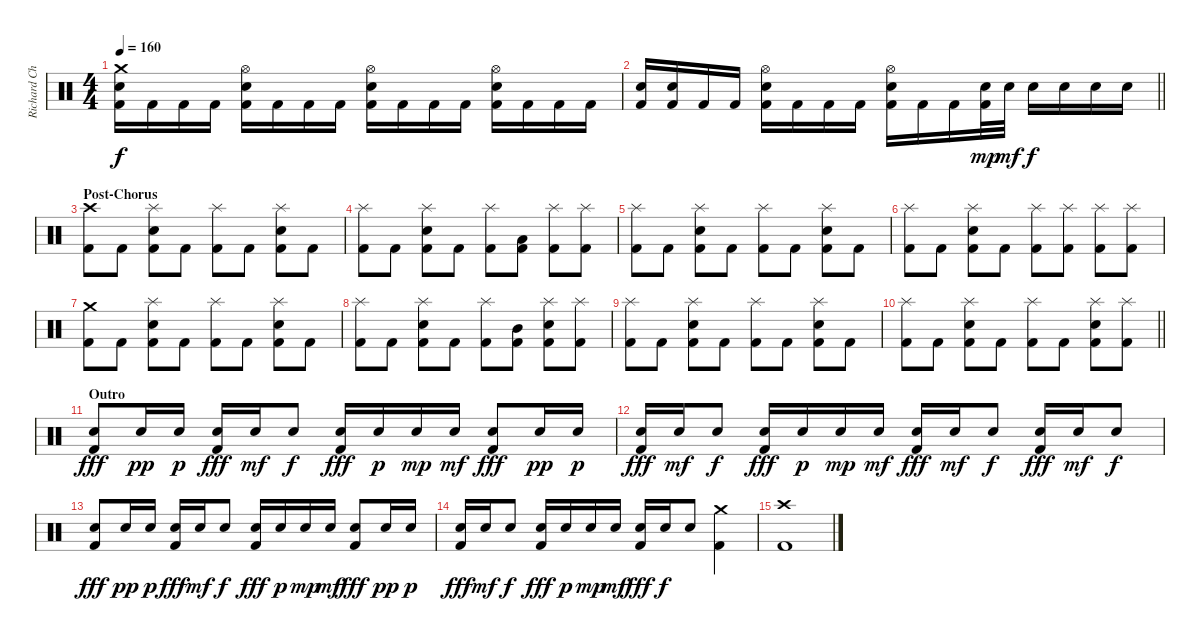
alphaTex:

\track ("Richard Christy" "Richard Ch") {instrument percussion}
\staff {score}
\articulation defaults
\ts (4 4)
\tempo 160
\clef neutral
\ks c
("Crash medium (hit)" "Snare (hit) 2" "Kick (hit) 2").16{dy f} "Kick (hit) 2".16 "Kick (hit) 2".16 "Kick (hit) 2".16 ("Hi-Hat (open)" "Snare (hit) 2" "Kick (hit) 2").16 "Kick (hit) 2".16 "Kick (hit) 2".16 "Kick (hit) 2".16 ("Hi-Hat (open)" "Snare (hit) 2" "Kick (hit) 2").16 "Kick (hit) 2".16 "Kick (hit) 2".16 "Kick (hit) 2".16 ("Hi-Hat (open)" "Snare (hit) 2" "Kick (hit) 2").16 "Kick (hit) 2".16 "Kick (hit) 2".16 "Kick (hit) 2".16 |
\barLineRight lightlight
("Snare (hit) 2" "Kick (hit) 2").16 ("Snare (hit) 2" "Kick (hit) 2").16 "Kick (hit) 2".16 "Kick (hit) 2".16 ("Hi-Hat (open)" "Snare (hit) 2" "Kick (hit) 2").16 "Kick (hit) 2".16 "Kick (hit) 2".16 "Kick (hit) 2".16 ("Hi-Hat (open)" "Snare (hit) 2" "Kick (hit) 2").16 "Kick (hit) 2".16 "Kick (hit) 2".16 ("Snare (hit) 2" "Kick (hit) 2").32{dy mp} "Snare (hit) 2".32{dy mf} "Snare (hit) 2".16{dy f} "Snare (hit) 2".16 "Snare (hit) 2".16 "Snare (hit) 2".16 |
\section ("" "Post-Chorus")
("Crash high (hit)" "Kick (hit) 2").8 "Kick (hit) 2".8 ("Splash (hit)" "Snare (hit) 2" "Kick (hit) 2").8 "Kick (hit) 2".8 ("Splash (hit)" "Kick (hit) 2").8 "Kick (hit) 2".8 ("Splash (hit)" "Snare (hit) 2" "Kick (hit) 2").8 "Kick (hit) 2".8 |
("Splash (hit)" "Kick (hit) 2").8 "Kick (hit) 2".8 ("Splash (hit)" "Snare (hit) 2" "Kick (hit) 2").8 "Kick (hit) 2".8 ("Splash (hit)" "Kick (hit) 2").8 ("Low Tom (hit)" "Kick (hit) 2").8 ("Splash (hit)" "Kick (hit) 2").8 ("Splash (hit)" "Kick (hit) 2").8 |
("Splash (hit)" "Kick (hit) 2").8 "Kick (hit) 2".8 ("Splash (hit)" "Snare (hit) 2" "Kick (hit) 2").8 "Kick (hit) 2".8 ("Splash (hit)" "Kick (hit) 2").8 "Kick (hit) 2".8 ("Splash (hit)" "Snare (hit) 2" "Kick (hit) 2").8 "Kick (hit) 2".8 |
("Splash (hit)" "Kick (hit) 2").8 "Kick (hit) 2".8 ("Splash (hit)" "Snare (hit) 2" "Kick (hit) 2").8 "Kick (hit) 2".8 ("Splash (hit)" "Kick (hit) 2").8 ("Splash (hit)" "Kick (hit) 2").8 ("Splash (hit)" "Kick (hit) 2").8 ("Splash (hit)" "Kick (hit) 2").8 |
("Crash medium (hit)" "Kick (hit) 2").8 "Kick (hit) 2".8 ("Splash (hit)" "Snare (hit) 2" "Kick (hit) 2").8 "Kick (hit) 2".8 ("Splash (hit)" "Kick (hit) 2").8 "Kick (hit) 2".8 ("Splash (hit)" "Snare (hit) 2" "Kick (hit) 2").8 "Kick (hit) 2".8 |
("Splash (hit)" "Kick (hit) 2").8 "Kick (hit) 2".8 ("Splash (hit)" "Snare (hit) 2" "Kick (hit) 2").8 "Kick (hit) 2".8 ("Splash (hit)" "Kick (hit) 2").8 ("Mid Tom (hit)" "Kick (hit) 2").8 ("Splash (hit)" "Snare (hit) 2" "Kick (hit) 2").8 ("Splash (hit)" "Kick (hit) 2").8 |
("Splash (hit)" "Kick (hit) 2").8 "Kick (hit) 2".8 ("Splash (hit)" "Snare (hit) 2" "Kick (hit) 2").8 "Kick (hit) 2".8 ("Splash (hit)" "Kick (hit) 2").8 "Kick (hit) 2".8 ("Splash (hit)" "Snare (hit) 2" "Kick (hit) 2").8 "Kick (hit) 2".8 |
\barLineRight lightlight
("Splash (hit)" "Kick (hit) 2").8 "Kick (hit) 2".8 ("Splash (hit)" "Snare (hit) 2" "Kick (hit) 2").8 "Kick (hit) 2".8 ("Splash (hit)" "Kick (hit) 2").8 "Kick (hit) 2".8 ("Splash (hit)" "Snare (hit) 2" "Kick (hit) 2").8 ("Splash (hit)" "Kick (hit) 2").8 |
\section ("" "Outro")
("Snare (hit) 2" "Kick (hit) 2").8{dy fff} "Snare (hit) 2".16{dy pp} "Snare (hit) 2".16{dy p} ("Snare (hit) 2" "Kick (hit) 2").16{dy fff} "Snare (hit) 2".16{dy mf} "Snare (hit) 2".8{dy f} ("Snare (hit) 2" "Kick (hit) 2").16{dy fff} "Snare (hit) 2".16{dy p} "Snare (hit) 2".16{dy mp} "Snare (hit) 2".16{dy mf} ("Snare (hit) 2" "Kick (hit) 2").8{dy fff} "Snare (hit) 2".16{dy pp} "Snare (hit) 2".16{dy p} |
("Snare (hit) 2" "Kick (hit) 2").16{dy fff} "Snare (hit) 2".16{dy mf} "Snare (hit) 2".8{dy f} ("Snare (hit) 2" "Kick (hit) 2").16{dy fff} "Snare (hit) 2".16{dy p} "Snare (hit) 2".16{dy mp} "Snare (hit) 2".16{dy mf} ("Snare (hit) 2" "Kick (hit) 2").16{dy fff} "Snare (hit) 2".16{dy mf} "Snare (hit) 2".8{dy f} ("Snare (hit) 2" "Kick (hit) 2").16{dy fff} "Snare (hit) 2".16{dy mf} "Snare (hit) 2".8{dy f} |
("Snare (hit) 2" "Kick (hit) 2").8{dy fff} "Snare (hit) 2".16{dy pp} "Snare (hit) 2".16{dy p} ("Snare (hit) 2" "Kick (hit) 2").16{dy fff} "Snare (hit) 2".16{dy mf} "Snare (hit) 2".8{dy f} ("Snare (hit) 2" "Kick (hit) 2").16{dy fff} "Snare (hit) 2".16{dy p} "Snare (hit) 2".16{dy mp} "Snare (hit) 2".16{dy mf} ("Snare (hit) 2" "Kick (hit) 2").8{dy fff} "Snare (hit) 2".16{dy pp} "Snare (hit) 2".16{dy p} |
("Snare (hit) 2" "Kick (hit) 2").16{dy fff} "Snare (hit) 2".16{dy mf} "Snare (hit) 2".8{dy f} ("Snare (hit) 2" "Kick (hit) 2").16{dy fff} "Snare (hit) 2".16{dy p} "Snare (hit) 2".16{dy mp} "Snare (hit) 2".16{dy mf} ("Snare (hit) 2" "Kick (hit) 2").16{dy fff} "Snare (hit) 2".16{dy f} "Snare (hit) 2".8 ("Crash medium (hit)" "Kick (hit) 2").4 |
("Crash high (hit)" "Kick (hit) 2").1
